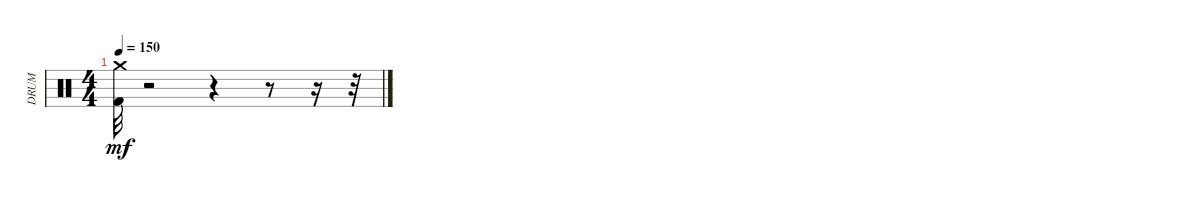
\track ("DRUM" "DRUM") {instrument percussion}
\staff {score}
\articulation defaults
\ts (4 4)
\tempo 150
\clef neutral
\ks c
("Kick (hit) 2" "Crash medium (hit)").32{dy mf} r.2 r.4 r.8 r.16 r.32
